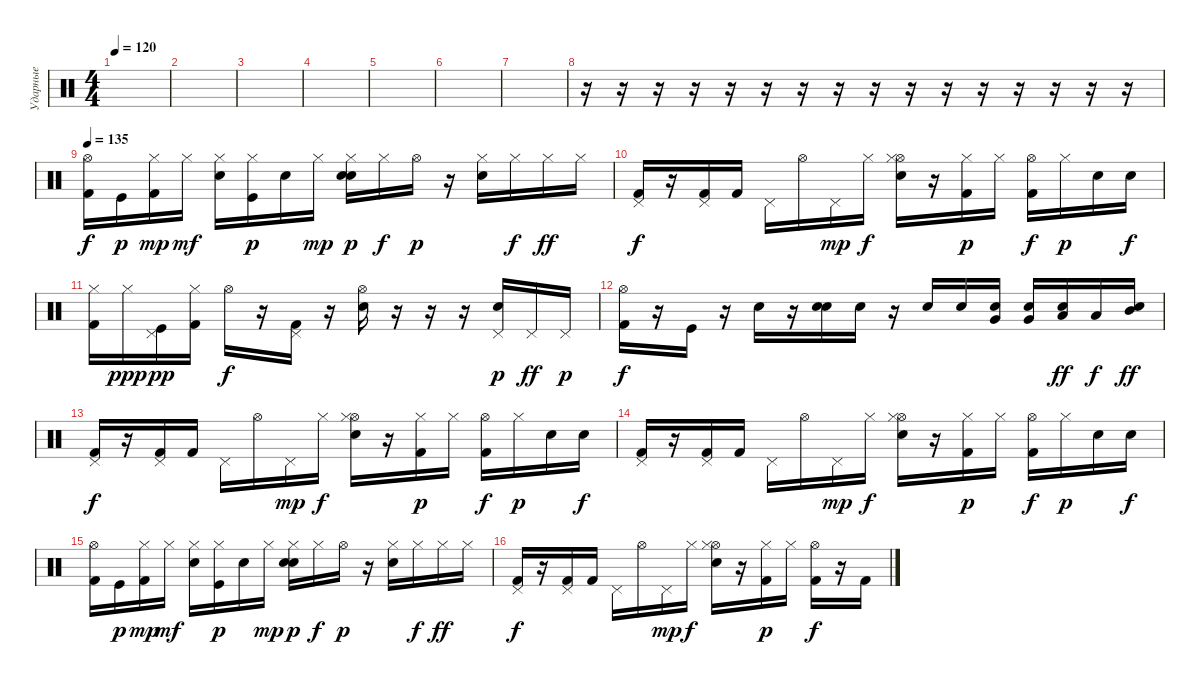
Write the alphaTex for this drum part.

\track ("Ударные" "Ударные") {instrument percussion}
\staff {score}
\articulation defaults
\ts (4 4)
\tempo 120
\tempo 135
\tempo 120
\clef neutral
\ks c
|
|
|
|
|
|
|
r.16 r.16 r.16 r.16 r.16 r.16 r.16 r.16 r.16 r.16 r.16 r.16 r.16 r.16 r.16 r.16 |
\tempo 135
("Hi-Hat (open)" "Kick (hit) 2").16 "Kick (hit)".16{dy p} ("Kick (hit) 2" "Hi-Hat (closed)").16{dy mp} "Hi-Hat (closed)".16{dy mf} ("Snare (hit) 2" "Hi-Hat (closed)").16 ("Kick (hit)" "Hi-Hat (closed)").16{dy p} "Snare (hit)".16 "Hi-Hat (closed)".16{dy mp} ("Electric Snare (hit)" "Snare (hit) 2" "Hi-Hat (closed)").16{dy p} "Hi-Hat (closed)".16{dy f} "Hi-Hat (open)".16{dy p} r.16 ("Electric Snare (hit)" "Hi-Hat (closed)").16 "Hi-Hat (closed)".16{dy f} "Hi-Hat (closed)".16{dy ff} "Hi-Hat (closed)".16 |
("Kick (hit) 2" "Pedal Hi-Hat (hit)").16{dy f} r.16 ("Kick (hit) 2" "Pedal Hi-Hat (hit)").16 "Kick (hit) 2".16 "Pedal Hi-Hat (hit)".16 "Hi-Hat (open)".16 "Pedal Hi-Hat (hit)".16{dy mp} "Hi-Hat (closed)".16{dy f} ("Snare (hit) 2" "Hi-Hat (open)" "Hi-Hat (closed)").16 r.16 ("Kick (hit) 2" "Hi-Hat (closed)").16{dy p} "Hi-Hat (closed)".16 ("Kick (hit) 2" "Hi-Hat (open)").16{dy f} "Hi-Hat (closed)".16{dy p} "Snare (hit) 2".16 "Snare (hit) 2".16{dy f} |
("Hi-Hat (closed)" "Kick (hit) 2").16 "Hi-Hat (closed)".16{dy ppp} ("Pedal Hi-Hat (hit)" "Kick (hit)").16{dy pp} ("Hi-Hat (closed)" "Kick (hit) 2").16 "Hi-Hat (open)".16{dy f} r.16 ("Pedal Hi-Hat (hit)" "Kick (hit) 2").16 r.16 ("Hi-Hat (open)" "Electric Snare (hit)").16 r.16 r.16 r.16 ("Pedal Hi-Hat (hit)" "Electric Snare (hit)").16{dy p} "Pedal Hi-Hat (hit)".16{dy ff} "Pedal Hi-Hat (hit)".16{dy p} |
("Hi-Hat (open)" "Kick (hit) 2").16{dy f} r.16 "Kick (hit)".16 r.16 "Snare (hit) 2".16 r.16 ("Snare (hit) 2" "Electric Snare (hit)").16 "Electric Snare (hit)".16 r.16 "Electric Snare (hit)".16 "Electric Snare (hit)".16 ("Electric Snare (hit)" "Very Low Tom (hit)").16 ("Electric Snare (hit)" "Very Low Tom (hit)").16 ("Electric Snare (hit)" "Low Tom (hit)").16{dy ff} "Low Tom (hit)".16{dy f} ("Electric Snare (hit)" "Mid Tom (hit)").16{dy ff} |
("Kick (hit) 2" "Pedal Hi-Hat (hit)").16{dy f} r.16 ("Kick (hit) 2" "Pedal Hi-Hat (hit)").16 "Kick (hit) 2".16 "Pedal Hi-Hat (hit)".16 "Hi-Hat (open)".16 "Pedal Hi-Hat (hit)".16{dy mp} "Hi-Hat (closed)".16{dy f} ("Snare (hit) 2" "Hi-Hat (open)" "Hi-Hat (closed)").16 r.16 ("Kick (hit) 2" "Hi-Hat (closed)").16{dy p} "Hi-Hat (closed)".16 ("Kick (hit) 2" "Hi-Hat (open)").16{dy f} "Hi-Hat (closed)".16{dy p} "Snare (hit) 2".16 "Snare (hit) 2".16{dy f} |
("Kick (hit) 2" "Pedal Hi-Hat (hit)").16 r.16 ("Kick (hit) 2" "Pedal Hi-Hat (hit)").16 "Kick (hit) 2".16 "Pedal Hi-Hat (hit)".16 "Hi-Hat (open)".16 "Pedal Hi-Hat (hit)".16{dy mp} "Hi-Hat (closed)".16{dy f} ("Snare (hit) 2" "Hi-Hat (open)" "Hi-Hat (closed)").16 r.16 ("Kick (hit) 2" "Hi-Hat (closed)").16{dy p} "Hi-Hat (closed)".16 ("Kick (hit) 2" "Hi-Hat (open)").16{dy f} "Hi-Hat (closed)".16{dy p} "Snare (hit) 2".16 "Snare (hit) 2".16{dy f} |
("Hi-Hat (open)" "Kick (hit) 2").16 "Kick (hit)".16{dy p} ("Kick (hit) 2" "Hi-Hat (closed)").16{dy mp} "Hi-Hat (closed)".16{dy mf} ("Snare (hit) 2" "Hi-Hat (closed)").16 ("Kick (hit)" "Hi-Hat (closed)").16{dy p} "Snare (hit)".16 "Hi-Hat (closed)".16{dy mp} ("Electric Snare (hit)" "Snare (hit) 2" "Hi-Hat (closed)").16{dy p} "Hi-Hat (closed)".16{dy f} "Hi-Hat (open)".16{dy p} r.16 ("Electric Snare (hit)" "Hi-Hat (closed)").16 "Hi-Hat (closed)".16{dy f} "Hi-Hat (closed)".16{dy ff} "Hi-Hat (closed)".16 |
("Kick (hit) 2" "Pedal Hi-Hat (hit)").16{dy f} r.16 ("Kick (hit) 2" "Pedal Hi-Hat (hit)").16 "Kick (hit) 2".16 "Pedal Hi-Hat (hit)".16 "Hi-Hat (open)".16 "Pedal Hi-Hat (hit)".16{dy mp} "Hi-Hat (closed)".16{dy f} ("Snare (hit) 2" "Hi-Hat (open)" "Hi-Hat (closed)").16 r.16 ("Kick (hit) 2" "Hi-Hat (closed)").16{dy p} "Hi-Hat (closed)".16 ("Kick (hit) 2" "Hi-Hat (open)").16{dy f} r.16 "Kick (hit) 2".16
